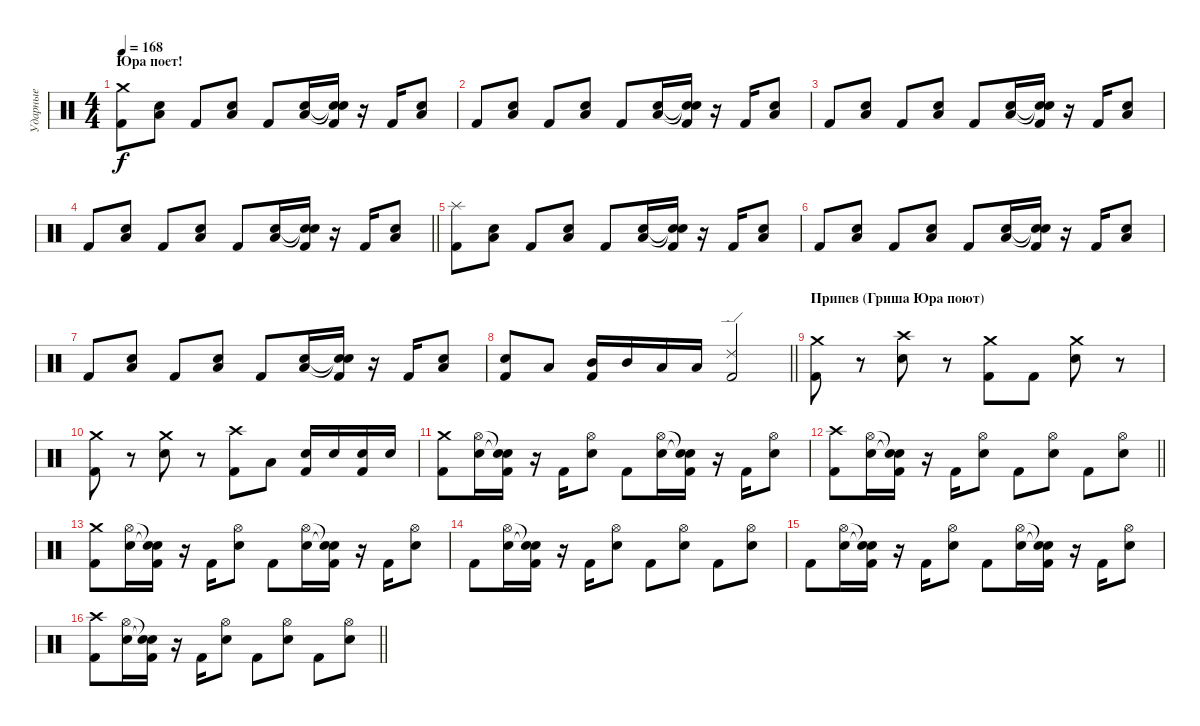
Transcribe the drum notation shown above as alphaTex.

\track ("Ударные" "Ударные") {instrument percussion}
\staff {score}
\articulation defaults
\ts (4 4)
\section ("" "Юра поет!")
\tempo 168
\clef neutral
\ks c
("Crash medium (hit)" "Kick (hit) 2").8{dy f} ("Low Floor Tom (hit)" "Snare (hit) 2").8 "Kick (hit) 2".8 ("Low Floor Tom (hit)" "Snare (hit) 2").8 "Kick (hit) 2".8 ("Low Floor Tom (hit)" "Snare (hit) 2").16 ("Snare (hit)"{t} "Snare (hit)"{t} "Kick (hit) 2").16 r.16 "Kick (hit) 2".16 ("Low Floor Tom (hit)" "Snare (hit) 2").8 |
"Kick (hit) 2".8 ("Low Floor Tom (hit)" "Snare (hit) 2").8 "Kick (hit) 2".8 ("Low Floor Tom (hit)" "Snare (hit) 2").8 "Kick (hit) 2".8 ("Low Floor Tom (hit)" "Snare (hit) 2").16 ("Snare (hit)"{t} "Snare (hit)"{t} "Kick (hit) 2").16 r.16 "Kick (hit) 2".16 ("Low Floor Tom (hit)" "Snare (hit) 2").8 |
"Kick (hit) 2".8 ("Low Floor Tom (hit)" "Snare (hit) 2").8 "Kick (hit) 2".8 ("Low Floor Tom (hit)" "Snare (hit) 2").8 "Kick (hit) 2".8 ("Low Floor Tom (hit)" "Snare (hit) 2").16 ("Snare (hit)"{t} "Snare (hit)"{t} "Kick (hit) 2").16 r.16 "Kick (hit) 2".16 ("Low Floor Tom (hit)" "Snare (hit) 2").8 |
\barLineRight lightlight "Kick (hit) 2".8
("Low Floor Tom (hit)" "Snare (hit) 2").8 "Kick (hit) 2".8 ("Low Floor Tom (hit)" "Snare (hit) 2").8 "Kick (hit) 2".8 ("Low Floor Tom (hit)" "Snare (hit) 2").16 ("Snare (hit)"{t} "Snare (hit)"{t} "Kick (hit) 2").16 r.16 "Kick (hit) 2".16 ("Low Floor Tom (hit)" "Snare (hit) 2").8 |
("Splash (hit)" "Kick (hit) 2").8 ("Low Floor Tom (hit)" "Snare (hit) 2").8 "Kick (hit) 2".8 ("Low Floor Tom (hit)" "Snare (hit) 2").8 "Kick (hit) 2".8 ("Low Floor Tom (hit)" "Snare (hit) 2").16 ("Snare (hit)"{t} "Snare (hit)"{t} "Kick (hit) 2").16 r.16 "Kick (hit) 2".16 ("Low Floor Tom (hit)" "Snare (hit) 2").8 |
"Kick (hit) 2".8 ("Low Floor Tom (hit)" "Snare (hit) 2").8 "Kick (hit) 2".8 ("Low Floor Tom (hit)" "Snare (hit) 2").8 "Kick (hit) 2".8 ("Low Floor Tom (hit)" "Snare (hit) 2").16 ("Snare (hit)"{t} "Snare (hit)"{t} "Kick (hit) 2").16 r.16 "Kick (hit) 2".16 ("Low Floor Tom (hit)" "Snare (hit) 2").8 |
"Kick (hit) 2".8 ("Low Floor Tom (hit)" "Snare (hit) 2").8 "Kick (hit) 2".8 ("Low Floor Tom (hit)" "Snare (hit) 2").8 "Kick (hit) 2".8 ("Low Floor Tom (hit)" "Snare (hit) 2").16 ("Snare (hit)"{t} "Snare (hit)"{t} "Kick (hit) 2").16 r.16 "Kick (hit) 2".16 ("Low Floor Tom (hit)" "Snare (hit) 2").8 |
\barLineRight lightlight
("Snare (hit) 2" "Kick (hit) 2").8 "Low Tom (hit)".8 ("Mid Tom (hit)" "Kick (hit) 2").16 "Mid Tom (hit)".16 "Low Tom (hit)".16 "Low Tom (hit)".16 ("Ride (edge) 2" "Kick (hit) 2").2 |
\section ("" "Припев (Гриша Юра поют)")
("Crash medium (hit)" "Kick (hit) 2").8 r.8 ("Crash high (hit)" "Snare (hit) 2").8 r.8 ("Crash medium (hit)" "Kick (hit) 2").8 "Kick (hit) 2".8 ("Crash medium (hit)" "Snare (hit) 2").8 r.8 |
("Crash medium (hit)" "Kick (hit) 2").8 r.8 ("Crash medium (hit)" "Snare (hit) 2").8 r.8 ("Crash high (hit)" "Kick (hit) 2").8 "Low Tom (hit)".8 ("Snare (hit) 2" "Kick (hit) 2").16 "Snare (hit) 2".16 ("Snare (hit) 2" "Kick (hit) 2").16 "Snare (hit) 2".16 |
("Crash medium (hit)" "Kick (hit) 2").8 ("Hi-Hat (open)" "Snare (hit) 2").16 ("Snare (hit)"{t} "Snare (hit)"{t} "Kick (hit) 2").16 r.16 "Kick (hit) 2".16 ("Hi-Hat (open)" "Snare (hit) 2").8 "Kick (hit) 2".8 ("Hi-Hat (open)" "Snare (hit) 2").16 ("Snare (hit)"{t} "Snare (hit)"{t} "Kick (hit) 2").16 r.16 "Kick (hit) 2".16 ("Hi-Hat (open)" "Snare (hit) 2").8 |
\barLineRight lightlight
("Crash high (hit)" "Kick (hit) 2").8 ("Hi-Hat (open)" "Snare (hit) 2").16 ("Snare (hit)"{t} "Snare (hit)"{t} "Kick (hit) 2").16 r.16 "Kick (hit) 2".16 ("Hi-Hat (open)" "Snare (hit) 2").8 "Kick (hit) 2".8 ("Hi-Hat (open)" "Snare (hit) 2").8 "Kick (hit) 2".8 ("Hi-Hat (open)" "Snare (hit) 2").8 |
("Crash medium (hit)" "Kick (hit) 2").8 ("Hi-Hat (open)" "Snare (hit) 2").16 ("Snare (hit)"{t} "Snare (hit)"{t} "Kick (hit) 2").16 r.16 "Kick (hit) 2".16 ("Hi-Hat (open)" "Snare (hit) 2").8 "Kick (hit) 2".8 ("Hi-Hat (open)" "Snare (hit) 2").16 ("Snare (hit)"{t} "Snare (hit)"{t} "Kick (hit) 2").16 r.16 "Kick (hit) 2".16 ("Hi-Hat (open)" "Snare (hit) 2").8 |
"Kick (hit) 2".8 ("Hi-Hat (open)" "Snare (hit) 2").16 ("Snare (hit)"{t} "Snare (hit)"{t} "Kick (hit) 2").16 r.16 "Kick (hit) 2".16 ("Hi-Hat (open)" "Snare (hit) 2").8 "Kick (hit) 2".8 ("Hi-Hat (open)" "Snare (hit) 2").8 "Kick (hit) 2".8 ("Hi-Hat (open)" "Snare (hit) 2").8 |
"Kick (hit) 2".8 ("Hi-Hat (open)" "Snare (hit) 2").16 ("Snare (hit)"{t} "Snare (hit)"{t} "Kick (hit) 2").16 r.16 "Kick (hit) 2".16 ("Hi-Hat (open)" "Snare (hit) 2").8 "Kick (hit) 2".8 ("Hi-Hat (open)" "Snare (hit) 2").16 ("Snare (hit)"{t} "Snare (hit)"{t} "Kick (hit) 2").16 r.16 "Kick (hit) 2".16 ("Hi-Hat (open)" "Snare (hit) 2").8 |
\barLineRight lightlight
("Crash high (hit)" "Kick (hit) 2").8 ("Hi-Hat (open)" "Snare (hit) 2").16 ("Snare (hit)"{t} "Snare (hit)"{t} "Kick (hit) 2").16 r.16 "Kick (hit) 2".16 ("Hi-Hat (open)" "Snare (hit) 2").8 "Kick (hit) 2".8 ("Hi-Hat (open)" "Snare (hit) 2").8 "Kick (hit) 2".8 ("Hi-Hat (open)" "Snare (hit) 2").8
